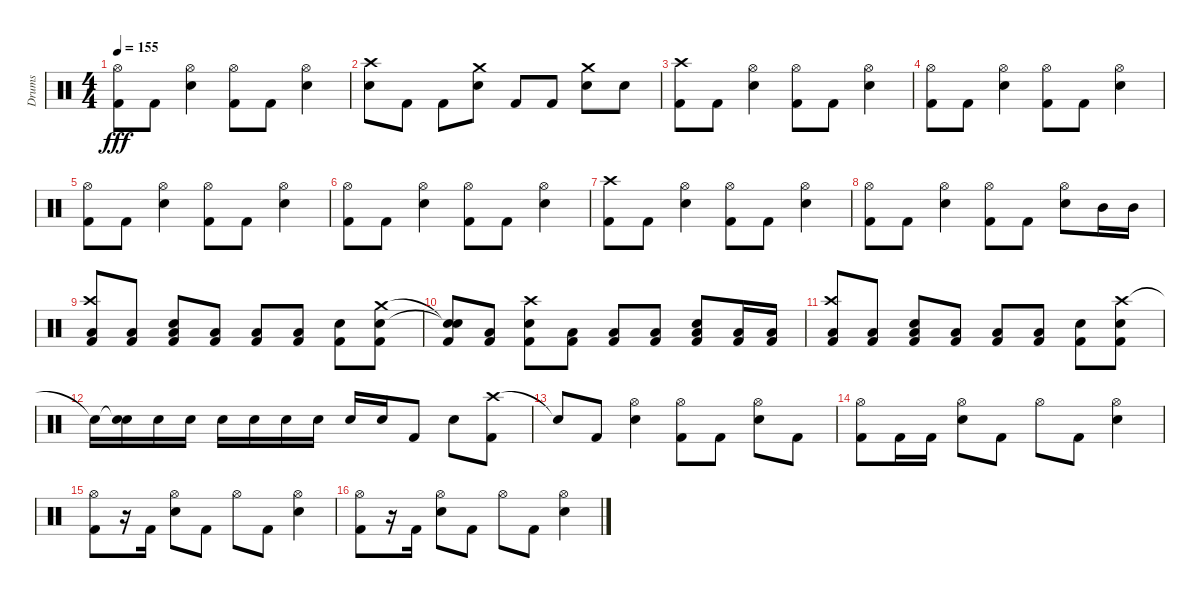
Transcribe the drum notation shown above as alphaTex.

\track ("Drums" "Drums") {instrument percussion}
\staff {score}
\articulation defaults
\ts (4 4)
\tempo 155
\clef neutral
\ks c
("Hi-Hat (open)" "Kick (hit) 2").8{dy fff} "Kick (hit) 2".8 ("Hi-Hat (open)" "Electric Snare (hit)").4 ("Hi-Hat (open)" "Kick (hit) 2").8 "Kick (hit) 2".8 ("Hi-Hat (open)" "Electric Snare (hit)").4 |
("Crash high (hit)" "Electric Snare (hit)").8 "Kick (hit) 2".8 "Kick (hit) 2".8 ("Crash medium (hit)" "Electric Snare (hit)").8 "Kick (hit) 2".8 "Kick (hit) 2".8 ("Crash medium (hit)" "Electric Snare (hit)").8 "Electric Snare (hit)".8 |
("Crash high (hit)" "Kick (hit) 2").8 "Kick (hit) 2".8 ("Hi-Hat (open)" "Electric Snare (hit)").4 ("Hi-Hat (open)" "Kick (hit) 2").8 "Kick (hit) 2".8 ("Hi-Hat (open)" "Electric Snare (hit)").4 |
("Hi-Hat (open)" "Kick (hit) 2").8 "Kick (hit) 2".8 ("Hi-Hat (open)" "Electric Snare (hit)").4 ("Hi-Hat (open)" "Kick (hit) 2").8 "Kick (hit) 2".8 ("Hi-Hat (open)" "Electric Snare (hit)").4 |
("Hi-Hat (open)" "Kick (hit) 2").8 "Kick (hit) 2".8 ("Hi-Hat (open)" "Electric Snare (hit)").4 ("Hi-Hat (open)" "Kick (hit) 2").8 "Kick (hit) 2".8 ("Hi-Hat (open)" "Electric Snare (hit)").4 |
("Hi-Hat (open)" "Kick (hit) 2").8 "Kick (hit) 2".8 ("Hi-Hat (open)" "Electric Snare (hit)").4 ("Hi-Hat (open)" "Kick (hit) 2").8 "Kick (hit) 2".8 ("Hi-Hat (open)" "Electric Snare (hit)").4 |
("Crash high (hit)" "Kick (hit) 2").8 "Kick (hit) 2".8 ("Hi-Hat (open)" "Electric Snare (hit)").4 ("Hi-Hat (open)" "Kick (hit) 2").8 "Kick (hit) 2".8 ("Hi-Hat (open)" "Electric Snare (hit)").4 |
("Hi-Hat (open)" "Kick (hit) 2").8 "Kick (hit) 2".8 ("Hi-Hat (open)" "Electric Snare (hit)").4 ("Hi-Hat (open)" "Kick (hit) 2").8 "Kick (hit) 2".8 ("Hi-Hat (open)" "Electric Snare (hit)").8 "Mid Tom (hit)".16 "Mid Tom (hit)".16 |
("Crash high (hit)" "Low Floor Tom (hit)" "Kick (hit) 2").8 ("Low Floor Tom (hit)" "Kick (hit) 2").8 ("Low Floor Tom (hit)" "Electric Snare (hit)" "Kick (hit) 2").8 ("Low Floor Tom (hit)" "Kick (hit) 2").8 ("Low Floor Tom (hit)" "Kick (hit) 2").8 ("Low Floor Tom (hit)" "Kick (hit) 2").8 ("Electric Snare (hit)" "Kick (hit) 2").8 ("Crash medium (hit)" "Electric Snare (hit)" "Kick (hit) 2").8 |
("Snare (hit)"{t} "Snare (hit)"{t} "Kick (hit) 2").8 ("Low Floor Tom (hit)" "Kick (hit) 2").8 ("Crash high (hit)" "Electric Snare (hit)" "Kick (hit) 2").8 ("Low Floor Tom (hit)" "Kick (hit) 2").8 ("Low Floor Tom (hit)" "Kick (hit) 2").8 ("Low Floor Tom (hit)" "Kick (hit) 2").8 ("Low Floor Tom (hit)" "Electric Snare (hit)" "Kick (hit) 2").8 ("Low Floor Tom (hit)" "Kick (hit) 2").16 ("Low Tom (hit)" "Kick (hit) 2").16 |
("Crash high (hit)" "Low Floor Tom (hit)" "Kick (hit) 2").8 ("Low Floor Tom (hit)" "Kick (hit) 2").8 ("Low Floor Tom (hit)" "Electric Snare (hit)" "Kick (hit) 2").8 ("Low Floor Tom (hit)" "Kick (hit) 2").8 ("Low Floor Tom (hit)" "Kick (hit) 2").8 ("Low Floor Tom (hit)" "Kick (hit) 2").8 ("Electric Snare (hit)" "Kick (hit) 2").8 ("Crash high (hit)" "Electric Snare (hit)" "Kick (hit) 2").8 |
"Snare (hit)"{t}.16 ("Snare (hit)"{t} "Electric Snare (hit)").16 "Electric Snare (hit)".16 "Electric Snare (hit)".16 "Electric Snare (hit)".16 "Electric Snare (hit)".16 "Electric Snare (hit)".16 "Electric Snare (hit)".16 "Electric Snare (hit)".16 "Electric Snare (hit)".16 "Kick (hit) 2".8 "Electric Snare (hit)".8 ("Crash high (hit)" "Kick (hit) 2").8 |
"Snare (hit)"{t}.8 "Kick (hit) 2".8 ("Hi-Hat (open)" "Electric Snare (hit)").4 ("Hi-Hat (open)" "Kick (hit) 2").8 "Kick (hit) 2".8 ("Hi-Hat (open)" "Electric Snare (hit)").8 "Kick (hit) 2".8 |
("Hi-Hat (open)" "Kick (hit) 2").8 "Kick (hit) 2".16 "Kick (hit) 2".16 ("Hi-Hat (open)" "Electric Snare (hit)").8 "Kick (hit) 2".8 "Hi-Hat (open)".8 "Kick (hit) 2".8 ("Hi-Hat (open)" "Electric Snare (hit)").4 |
("Hi-Hat (open)" "Kick (hit) 2").8 r.16 "Kick (hit) 2".16 ("Hi-Hat (open)" "Electric Snare (hit)").8 "Kick (hit) 2".8 "Hi-Hat (open)".8 "Kick (hit) 2".8 ("Hi-Hat (open)" "Electric Snare (hit)").4 |
("Hi-Hat (open)" "Kick (hit) 2").8 r.16 "Kick (hit) 2".16 ("Hi-Hat (open)" "Electric Snare (hit)").8 "Kick (hit) 2".8 "Hi-Hat (open)".8 "Kick (hit) 2".8 ("Hi-Hat (open)" "Electric Snare (hit)").4
